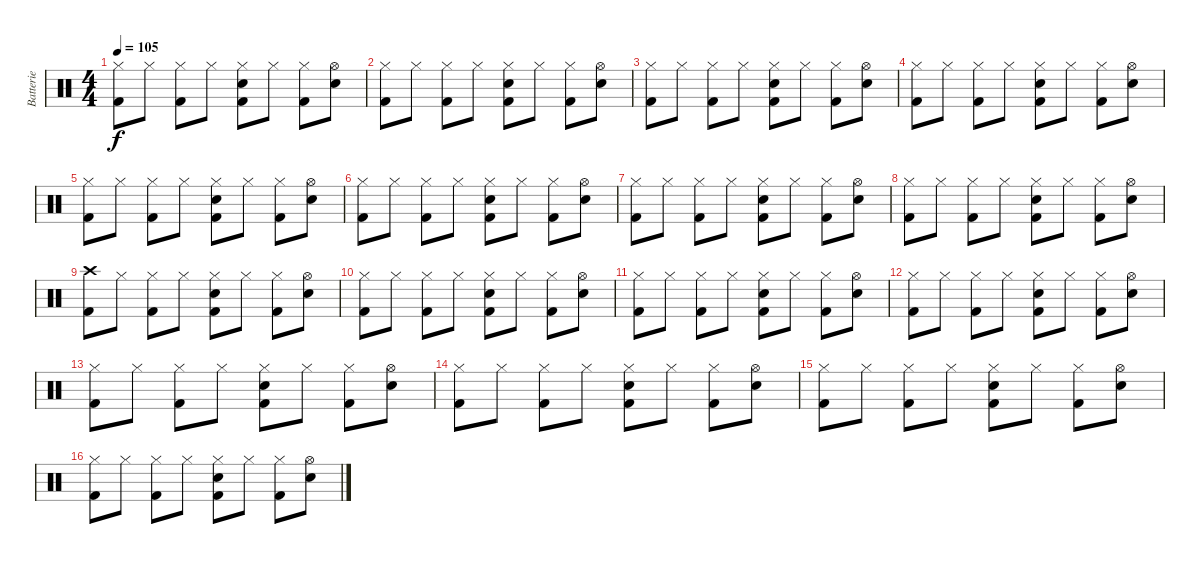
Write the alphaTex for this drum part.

\track ("Batterie" "Batterie") {instrument percussion}
\staff {score}
\articulation defaults
\ts (4 4)
\tempo 105
\clef neutral
\ks c
("Hi-Hat (closed)" "Kick (hit) 2").8{dy f} "Hi-Hat (closed)".8 ("Hi-Hat (closed)" "Kick (hit) 2").8 "Hi-Hat (closed)".8 ("Hi-Hat (closed)" "Snare (hit) 2" "Kick (hit) 2").8 "Hi-Hat (closed)".8 ("Hi-Hat (closed)" "Kick (hit) 2").8 ("Hi-Hat (open)" "Snare (hit) 2").8 |
("Hi-Hat (closed)" "Kick (hit) 2").8 "Hi-Hat (closed)".8 ("Hi-Hat (closed)" "Kick (hit) 2").8 "Hi-Hat (closed)".8 ("Hi-Hat (closed)" "Snare (hit) 2" "Kick (hit) 2").8 "Hi-Hat (closed)".8 ("Hi-Hat (closed)" "Kick (hit) 2").8 ("Hi-Hat (open)" "Snare (hit) 2").8 |
("Hi-Hat (closed)" "Kick (hit) 2").8 "Hi-Hat (closed)".8 ("Hi-Hat (closed)" "Kick (hit) 2").8 "Hi-Hat (closed)".8 ("Hi-Hat (closed)" "Snare (hit) 2" "Kick (hit) 2").8 "Hi-Hat (closed)".8 ("Hi-Hat (closed)" "Kick (hit) 2").8 ("Hi-Hat (open)" "Snare (hit) 2").8 |
("Hi-Hat (closed)" "Kick (hit) 2").8 "Hi-Hat (closed)".8 ("Hi-Hat (closed)" "Kick (hit) 2").8 "Hi-Hat (closed)".8 ("Hi-Hat (closed)" "Snare (hit) 2" "Kick (hit) 2").8 "Hi-Hat (closed)".8 ("Hi-Hat (closed)" "Kick (hit) 2").8 ("Hi-Hat (open)" "Snare (hit) 2").8 |
("Hi-Hat (closed)" "Kick (hit) 2").8 "Hi-Hat (closed)".8 ("Hi-Hat (closed)" "Kick (hit) 2").8 "Hi-Hat (closed)".8 ("Hi-Hat (closed)" "Snare (hit) 2" "Kick (hit) 2").8 "Hi-Hat (closed)".8 ("Hi-Hat (closed)" "Kick (hit) 2").8 ("Hi-Hat (open)" "Snare (hit) 2").8 |
("Hi-Hat (closed)" "Kick (hit) 2").8 "Hi-Hat (closed)".8 ("Hi-Hat (closed)" "Kick (hit) 2").8 "Hi-Hat (closed)".8 ("Hi-Hat (closed)" "Snare (hit) 2" "Kick (hit) 2").8 "Hi-Hat (closed)".8 ("Hi-Hat (closed)" "Kick (hit) 2").8 ("Hi-Hat (open)" "Snare (hit) 2").8 |
("Hi-Hat (closed)" "Kick (hit) 2").8 "Hi-Hat (closed)".8 ("Hi-Hat (closed)" "Kick (hit) 2").8 "Hi-Hat (closed)".8 ("Hi-Hat (closed)" "Snare (hit) 2" "Kick (hit) 2").8 "Hi-Hat (closed)".8 ("Hi-Hat (closed)" "Kick (hit) 2").8 ("Hi-Hat (open)" "Snare (hit) 2").8 |
("Hi-Hat (closed)" "Kick (hit) 2").8 "Hi-Hat (closed)".8 ("Hi-Hat (closed)" "Kick (hit) 2").8 "Hi-Hat (closed)".8 ("Hi-Hat (closed)" "Snare (hit) 2" "Kick (hit) 2").8 "Hi-Hat (closed)".8 ("Hi-Hat (closed)" "Kick (hit) 2").8 ("Hi-Hat (open)" "Snare (hit) 2").8 |
("Crash high (hit)" "Kick (hit) 2").8 "Hi-Hat (closed)".8 ("Hi-Hat (closed)" "Kick (hit) 2").8 "Hi-Hat (closed)".8 ("Hi-Hat (closed)" "Snare (hit) 2" "Kick (hit) 2").8 "Hi-Hat (closed)".8 ("Hi-Hat (closed)" "Kick (hit) 2").8 ("Hi-Hat (open)" "Snare (hit) 2").8 |
("Hi-Hat (closed)" "Kick (hit) 2").8 "Hi-Hat (closed)".8 ("Hi-Hat (closed)" "Kick (hit) 2").8 "Hi-Hat (closed)".8 ("Hi-Hat (closed)" "Snare (hit) 2" "Kick (hit) 2").8 "Hi-Hat (closed)".8 ("Hi-Hat (closed)" "Kick (hit) 2").8 ("Hi-Hat (open)" "Snare (hit) 2").8 |
("Hi-Hat (closed)" "Kick (hit) 2").8 "Hi-Hat (closed)".8 ("Hi-Hat (closed)" "Kick (hit) 2").8 "Hi-Hat (closed)".8 ("Hi-Hat (closed)" "Snare (hit) 2" "Kick (hit) 2").8 "Hi-Hat (closed)".8 ("Hi-Hat (closed)" "Kick (hit) 2").8 ("Hi-Hat (open)" "Snare (hit) 2").8 |
("Hi-Hat (closed)" "Kick (hit) 2").8 "Hi-Hat (closed)".8 ("Hi-Hat (closed)" "Kick (hit) 2").8 "Hi-Hat (closed)".8 ("Hi-Hat (closed)" "Snare (hit) 2" "Kick (hit) 2").8 "Hi-Hat (closed)".8 ("Hi-Hat (closed)" "Kick (hit) 2").8 ("Hi-Hat (open)" "Snare (hit) 2").8 |
("Hi-Hat (closed)" "Kick (hit) 2").8 "Hi-Hat (closed)".8 ("Hi-Hat (closed)" "Kick (hit) 2").8 "Hi-Hat (closed)".8 ("Hi-Hat (closed)" "Snare (hit) 2" "Kick (hit) 2").8 "Hi-Hat (closed)".8 ("Hi-Hat (closed)" "Kick (hit) 2").8 ("Hi-Hat (open)" "Snare (hit) 2").8 |
("Hi-Hat (closed)" "Kick (hit) 2").8 "Hi-Hat (closed)".8 ("Hi-Hat (closed)" "Kick (hit) 2").8 "Hi-Hat (closed)".8 ("Hi-Hat (closed)" "Snare (hit) 2" "Kick (hit) 2").8 "Hi-Hat (closed)".8 ("Hi-Hat (closed)" "Kick (hit) 2").8 ("Hi-Hat (open)" "Snare (hit) 2").8 |
("Hi-Hat (closed)" "Kick (hit) 2").8 "Hi-Hat (closed)".8 ("Hi-Hat (closed)" "Kick (hit) 2").8 "Hi-Hat (closed)".8 ("Hi-Hat (closed)" "Snare (hit) 2" "Kick (hit) 2").8 "Hi-Hat (closed)".8 ("Hi-Hat (closed)" "Kick (hit) 2").8 ("Hi-Hat (open)" "Snare (hit) 2").8 |
("Hi-Hat (closed)" "Kick (hit) 2").8 "Hi-Hat (closed)".8 ("Hi-Hat (closed)" "Kick (hit) 2").8 "Hi-Hat (closed)".8 ("Hi-Hat (closed)" "Snare (hit) 2" "Kick (hit) 2").8 "Hi-Hat (closed)".8 ("Hi-Hat (closed)" "Kick (hit) 2").8 ("Hi-Hat (open)" "Snare (hit) 2").8
